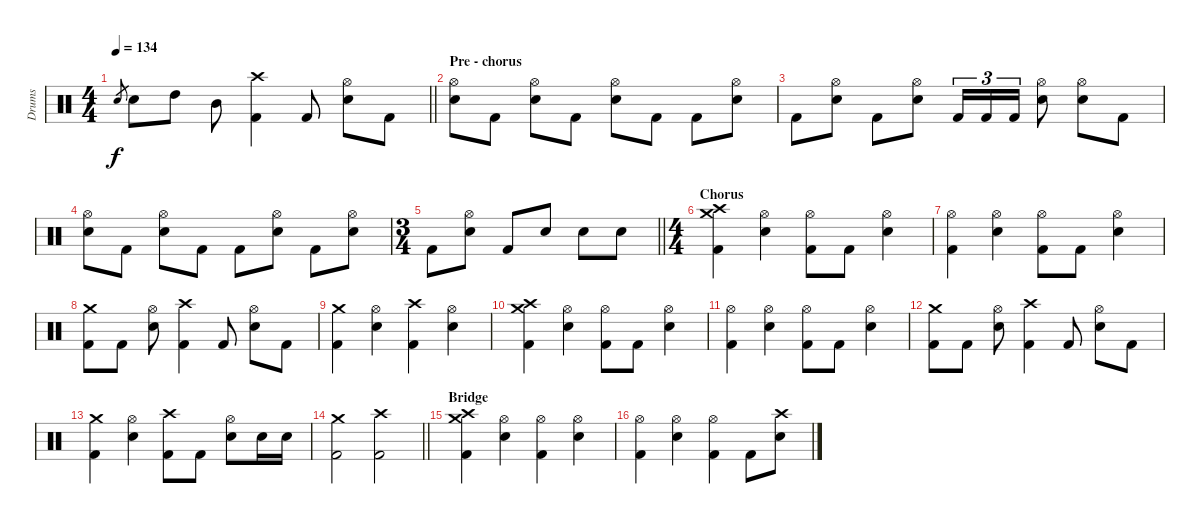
\track ("Drums" "Drums") {instrument percussion}
\staff {score}
\articulation defaults
\ts (4 4)
\tempo 134
\clef neutral
\barLineRight lightlight
\ks c "Snare (hit) 2".8{gr dy f} "Snare (hit) 2".8 "High Tom (hit)".8 "Mid Tom (hit)".8
("Crash high (hit)" "Kick (hit) 2").4 "Kick (hit) 2".8 ("Hi-Hat (open)" "Snare (hit) 2").8 "Kick (hit) 2".8 |
\section ("" "Pre - chorus")
("Hi-Hat (open)" "Snare (hit) 2").8 "Kick (hit) 2".8 ("Hi-Hat (open)" "Snare (hit) 2").8 "Kick (hit) 2".8 ("Hi-Hat (open)" "Snare (hit) 2").8 "Kick (hit) 2".8 "Kick (hit) 2".8 ("Hi-Hat (open)" "Snare (hit) 2").8 |
"Kick (hit) 2".8 ("Hi-Hat (open)" "Snare (hit) 2").8 "Kick (hit) 2".8 ("Hi-Hat (open)" "Snare (hit) 2").8 "Kick (hit) 2".16{tu (3 2)} "Kick (hit) 2".16{tu (3 2)} "Kick (hit) 2".16{tu (3 2)} ("Hi-Hat (open)" "Snare (hit) 2").8 ("Hi-Hat (open)" "Snare (hit) 2").8 "Kick (hit) 2".8 |
("Hi-Hat (open)" "Snare (hit) 2").8 "Kick (hit) 2".8 ("Hi-Hat (open)" "Snare (hit) 2").8 "Kick (hit) 2".8 "Kick (hit) 2".8 ("Hi-Hat (open)" "Snare (hit) 2").8 "Kick (hit) 2".8 ("Hi-Hat (open)" "Snare (hit) 2").8 |
\ts (3 4)
\barLineRight lightlight "Kick (hit) 2".8
("Hi-Hat (open)" "Snare (hit) 2").8 "Kick (hit) 2".8 "Snare (hit) 2".8 "Snare (hit) 2".8 "Snare (hit) 2".8 |
\ts (4 4)
\section ("" "Chorus")
("Crash medium (hit)" "Crash high (hit)" "Kick (hit) 2").4 ("Hi-Hat (open)" "Snare (hit) 2").4 ("Hi-Hat (open)" "Kick (hit) 2").8 "Kick (hit) 2".8 ("Hi-Hat (open)" "Snare (hit) 2").4 |
("Hi-Hat (open)" "Kick (hit) 2").4 ("Hi-Hat (open)" "Snare (hit) 2").4 ("Hi-Hat (open)" "Kick (hit) 2").8 "Kick (hit) 2".8 ("Hi-Hat (open)" "Snare (hit) 2").4 |
("Crash medium (hit)" "Kick (hit) 2").8 "Kick (hit) 2".8 ("Hi-Hat (open)" "Snare (hit) 2").8 ("Crash high (hit)" "Kick (hit) 2").4 "Kick (hit) 2".8 ("Hi-Hat (open)" "Snare (hit) 2").8 "Kick (hit) 2".8 |
("Crash medium (hit)" "Kick (hit) 2").4 ("Hi-Hat (open)" "Snare (hit) 2").4 ("Crash high (hit)" "Kick (hit) 2").4 ("Hi-Hat (open)" "Snare (hit) 2").4 |
("Crash medium (hit)" "Crash high (hit)" "Kick (hit) 2").4 ("Hi-Hat (open)" "Snare (hit) 2").4 ("Hi-Hat (open)" "Kick (hit) 2").8 "Kick (hit) 2".8 ("Hi-Hat (open)" "Snare (hit) 2").4 |
("Hi-Hat (open)" "Kick (hit) 2").4 ("Hi-Hat (open)" "Snare (hit) 2").4 ("Hi-Hat (open)" "Kick (hit) 2").8 "Kick (hit) 2".8 ("Hi-Hat (open)" "Snare (hit) 2").4 |
("Crash medium (hit)" "Kick (hit) 2").8 "Kick (hit) 2".8 ("Hi-Hat (open)" "Snare (hit) 2").8 ("Crash high (hit)" "Kick (hit) 2").4 "Kick (hit) 2".8 ("Hi-Hat (open)" "Snare (hit) 2").8 "Kick (hit) 2".8 |
("Crash medium (hit)" "Kick (hit) 2").4 ("Hi-Hat (open)" "Snare (hit) 2").4 ("Crash high (hit)" "Kick (hit) 2").8 "Kick (hit) 2".8 ("Hi-Hat (open)" "Snare (hit) 2").8 "Snare (hit) 2".16 "Snare (hit) 2".16 |
\barLineRight lightlight
("Crash medium (hit)" "Kick (hit) 2").2 ("Crash high (hit)" "Kick (hit) 2").2 |
\section ("" "Bridge")
("Crash medium (hit)" "Crash high (hit)" "Kick (hit) 2").4 ("Hi-Hat (open)" "Snare (hit) 2").4 ("Hi-Hat (open)" "Kick (hit) 2").4 ("Hi-Hat (open)" "Snare (hit) 2").4 |
("Hi-Hat (open)" "Kick (hit) 2").4 ("Hi-Hat (open)" "Snare (hit) 2").4 ("Hi-Hat (open)" "Kick (hit) 2").4 "Kick (hit) 2".8 ("Crash high (hit)" "Snare (hit) 2").8
